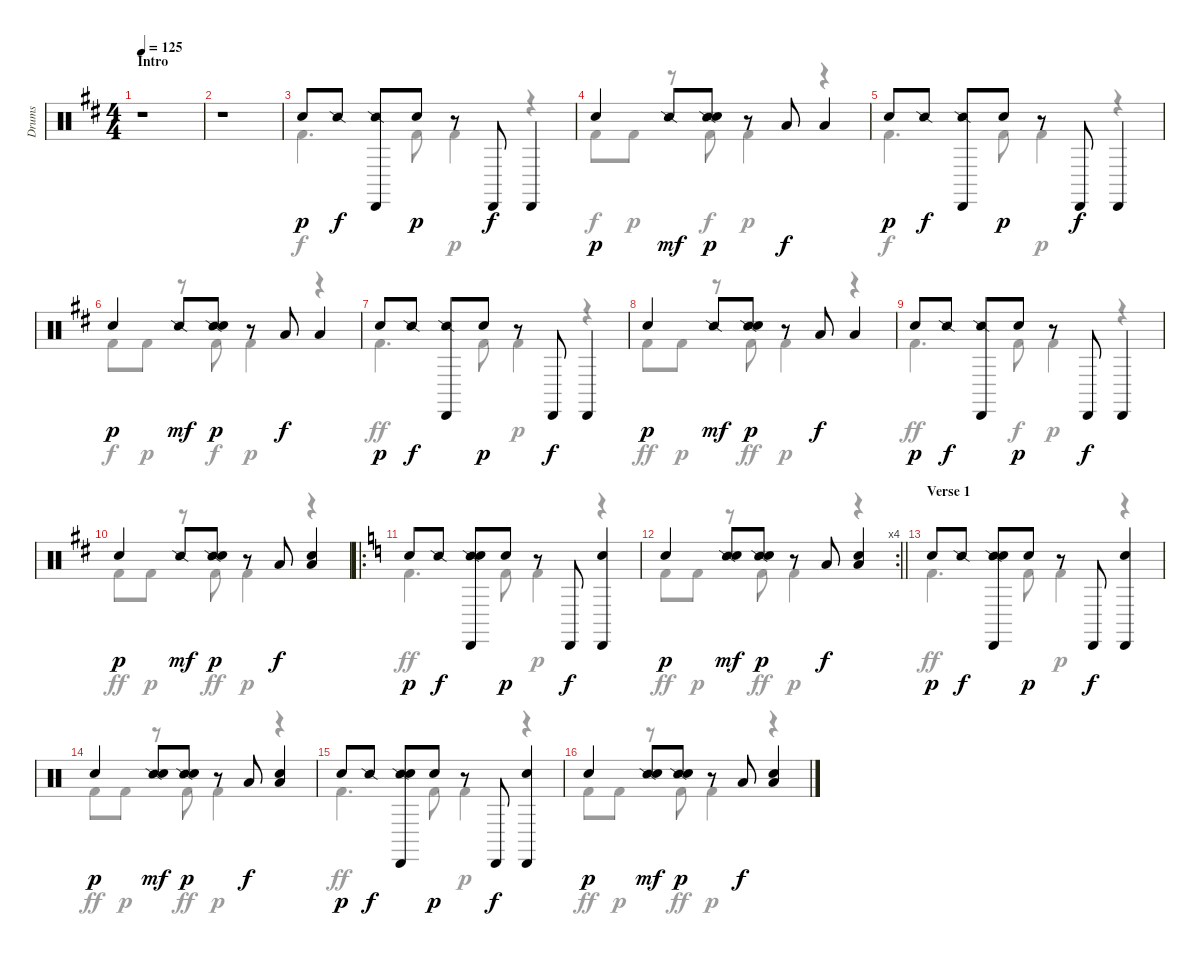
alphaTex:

\track ("Drums" "Drums") {instrument percussion}
\staff {score}
\articulation defaults
\voice
\ts (4 4)
\section ("" "Intro")
\tempo 125
\clef neutral
\ks d
r.1{dy p} |
r.1 |
"Hand Clap (hit)".8 "Snare (side stick) 2".8{dy f} ("Snare (side stick) 2" "Cabasa (hit)").8 "Hand Clap (hit)".8{dy p} r.8 "Cabasa (hit)".8{dy f} "Cabasa (hit)".4 |
"Hand Clap (hit)".4{dy p} "Snare (side stick) 2".8{dy mf} ("Snare (side stick) 2" "Hand Clap (hit)").8{dy p} r.8 "Low Tom (hit)".8{dy f} "Low Tom (hit)".4 |
"Hand Clap (hit)".8{dy p} "Snare (side stick) 2".8{dy f} ("Snare (side stick) 2" "Cabasa (hit)").8 "Hand Clap (hit)".8{dy p} r.8 "Cabasa (hit)".8{dy f} "Cabasa (hit)".4 |
"Hand Clap (hit)".4{dy p} "Snare (side stick) 2".8{dy mf} ("Snare (side stick) 2" "Hand Clap (hit)").8{dy p} r.8 "Low Tom (hit)".8{dy f} "Low Tom (hit)".4 |
"Hand Clap (hit)".8{dy p} "Snare (side stick) 2".8{dy f} ("Snare (side stick) 2" "Cabasa (hit)").8 "Hand Clap (hit)".8{dy p} r.8 "Cabasa (hit)".8{dy f} "Cabasa (hit)".4 |
"Hand Clap (hit)".4{dy p} "Snare (side stick) 2".8{dy mf} ("Snare (side stick) 2" "Hand Clap (hit)").8{dy p} r.8 "Low Tom (hit)".8{dy f} "Low Tom (hit)".4 |
"Hand Clap (hit)".8{dy p} "Snare (side stick) 2".8{dy f} ("Snare (side stick) 2" "Cabasa (hit)").8 "Hand Clap (hit)".8{dy p} r.8 "Cabasa (hit)".8{dy f} "Cabasa (hit)".4 |
"Hand Clap (hit)".4{dy p} "Snare (side stick) 2".8{dy mf} ("Snare (side stick) 2" "Hand Clap (hit)").8{dy p} r.8 "Low Tom (hit)".8{dy f} ("Low Tom (hit)" "Snare (hit) 2").4 |
\ro
\ks c "Hand Clap (hit)".8{dy p} "Snare (side stick) 2".8{dy f}
("Snare (side stick) 2" "Cabasa (hit)" "Snare (hit) 2").8 "Hand Clap (hit)".8{dy p} r.8 "Cabasa (hit)".8{dy f} ("Cabasa (hit)" "Snare (hit) 2").4 |
\rc 4
\barLineRight lightlight "Hand Clap (hit)".4{dy p}
("Snare (side stick) 2" "Snare (hit) 2").8{dy mf} ("Snare (side stick) 2" "Hand Clap (hit)").8{dy p} r.8 "Low Tom (hit)".8{dy f} ("Low Tom (hit)" "Snare (hit) 2").4 |
\section ("" "Verse 1")
"Hand Clap (hit)".8{dy p} "Snare (side stick) 2".8{dy f} ("Snare (side stick) 2" "Cabasa (hit)" "Snare (hit) 2").8 "Hand Clap (hit)".8{dy p} r.8 "Cabasa (hit)".8{dy f} ("Cabasa (hit)" "Snare (hit) 2").4 |
"Hand Clap (hit)".4{dy p} ("Snare (side stick) 2" "Snare (hit) 2").8{dy mf} ("Snare (side stick) 2" "Hand Clap (hit)").8{dy p} r.8 "Low Tom (hit)".8{dy f} ("Low Tom (hit)" "Snare (hit) 2").4 |
"Hand Clap (hit)".8{dy p} "Snare (side stick) 2".8{dy f} ("Snare (side stick) 2" "Cabasa (hit)" "Snare (hit) 2").8 "Hand Clap (hit)".8{dy p} r.8 "Cabasa (hit)".8{dy f} ("Cabasa (hit)" "Snare (hit) 2").4 |
"Hand Clap (hit)".4{dy p} ("Snare (side stick) 2" "Snare (hit) 2").8{dy mf} ("Snare (side stick) 2" "Hand Clap (hit)").8{dy p} r.8 "Low Tom (hit)".8{dy f} ("Low Tom (hit)" "Snare (hit) 2").4
\voice
\clef neutral
\ottava regular
\simile none
\ks d
|
|
"Kick (hit) 2".4{d} "Kick (hit) 2".8 "Kick (hit) 2".4{dy p} r.4 |
"Kick (hit) 2".8{dy f} "Kick (hit) 2".8{dy p} r.8 "Kick (hit) 2".8{dy f} "Kick (hit) 2".4{dy p} r.4 |
"Kick (hit) 2".4{d dy f} "Kick (hit) 2".8 "Kick (hit) 2".4{dy p} r.4 |
"Kick (hit) 2".8{dy f} "Kick (hit) 2".8{dy p} r.8 "Kick (hit) 2".8{dy f} "Kick (hit) 2".4{dy p} r.4 |
"Kick (hit) 2".4{d dy ff} "Kick (hit) 2".8 "Kick (hit) 2".4{dy p} r.4 |
"Kick (hit) 2".8{dy ff} "Kick (hit) 2".8{dy p} r.8 "Kick (hit) 2".8{dy ff} "Kick (hit) 2".4{dy p} r.4 |
"Kick (hit) 2".4{d dy ff} "Kick (hit) 2".8{dy f} "Kick (hit) 2".4{dy p} r.4 |
"Kick (hit) 2".8{dy ff} "Kick (hit) 2".8{dy p} r.8 "Kick (hit) 2".8{dy ff} "Kick (hit) 2".4{dy p} r.4 |
\ks c "Kick (hit) 2".4{d dy ff} "Kick (hit) 2".8 "Kick (hit) 2".4{dy p}
r.4 |
\barLineRight lightlight "Kick (hit) 2".8{dy ff} "Kick (hit) 2".8{dy p}
r.8 "Kick (hit) 2".8{dy ff} "Kick (hit) 2".4{dy p} r.4 |
"Kick (hit) 2".4{d dy ff} "Kick (hit) 2".8 "Kick (hit) 2".4{dy p} r.4 |
"Kick (hit) 2".8{dy ff} "Kick (hit) 2".8{dy p} r.8 "Kick (hit) 2".8{dy ff} "Kick (hit) 2".4{dy p} r.4 |
"Kick (hit) 2".4{d dy ff} "Kick (hit) 2".8 "Kick (hit) 2".4{dy p} r.4 |
"Kick (hit) 2".8{dy ff} "Kick (hit) 2".8{dy p} r.8 "Kick (hit) 2".8{dy ff} "Kick (hit) 2".4{dy p} r.4
